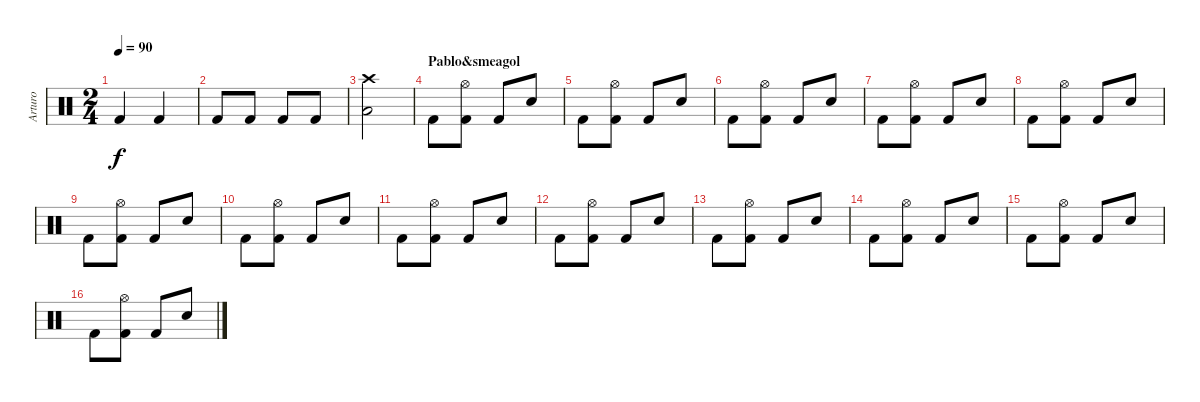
\track ("Arturo" "Arturo") {instrument percussion}
\staff {score}
\articulation defaults
\ts (2 4)
\tempo 90
\clef neutral
\ks c "Kick (hit) 2".4{dy f} "Kick (hit) 2".4
|
"Kick (hit) 2".8 "Kick (hit) 2".8 "Kick (hit) 2".8 "Kick (hit) 2".8 |
("Low Floor Tom (hit)" "Crash high (hit)").2 |
\section ("" "Pablo&smeagol")
"Kick (hit) 2".8 ("Hi-Hat (open)" "Kick (hit) 2").8 "Kick (hit) 2".8 "Snare (hit) 2".8 |
"Kick (hit) 2".8 ("Hi-Hat (open)" "Kick (hit) 2").8 "Kick (hit) 2".8 "Snare (hit) 2".8 |
"Kick (hit) 2".8 ("Hi-Hat (open)" "Kick (hit) 2").8 "Kick (hit) 2".8 "Snare (hit) 2".8 |
"Kick (hit) 2".8 ("Hi-Hat (open)" "Kick (hit) 2").8 "Kick (hit) 2".8 "Snare (hit) 2".8 |
"Kick (hit) 2".8 ("Hi-Hat (open)" "Kick (hit) 2").8 "Kick (hit) 2".8 "Snare (hit) 2".8 |
"Kick (hit) 2".8 ("Hi-Hat (open)" "Kick (hit) 2").8 "Kick (hit) 2".8 "Snare (hit) 2".8 |
"Kick (hit) 2".8 ("Hi-Hat (open)" "Kick (hit) 2").8 "Kick (hit) 2".8 "Snare (hit) 2".8 |
"Kick (hit) 2".8 ("Hi-Hat (open)" "Kick (hit) 2").8 "Kick (hit) 2".8 "Snare (hit) 2".8 |
"Kick (hit) 2".8 ("Hi-Hat (open)" "Kick (hit) 2").8 "Kick (hit) 2".8 "Snare (hit) 2".8 |
"Kick (hit) 2".8 ("Hi-Hat (open)" "Kick (hit) 2").8 "Kick (hit) 2".8 "Snare (hit) 2".8 |
"Kick (hit) 2".8 ("Hi-Hat (open)" "Kick (hit) 2").8 "Kick (hit) 2".8 "Snare (hit) 2".8 |
"Kick (hit) 2".8 ("Hi-Hat (open)" "Kick (hit) 2").8 "Kick (hit) 2".8 "Snare (hit) 2".8 |
"Kick (hit) 2".8 ("Hi-Hat (open)" "Kick (hit) 2").8 "Kick (hit) 2".8 "Snare (hit) 2".8
